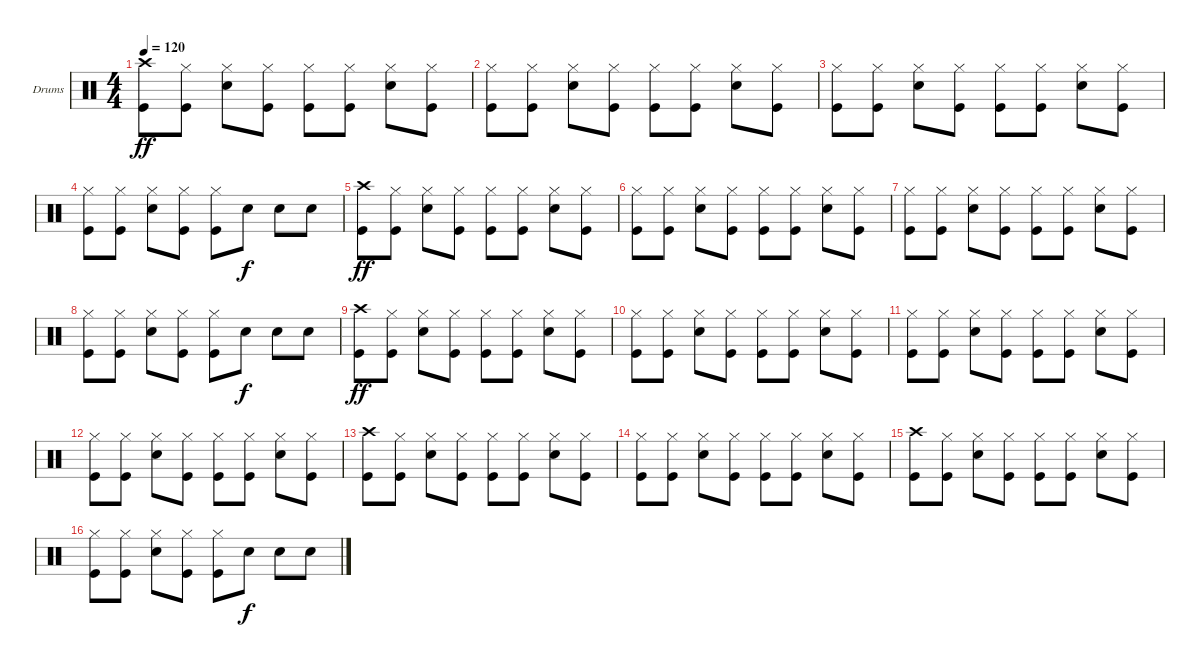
\defaultSystemsLayout 4
\bracketExtendMode groupsimilarinstruments
\firstSystemTrackNameOrientation horizontal
\otherSystemsTrackNameOrientation horizontal
\track ("Drumkit" "Drums") {instrument percussion}
\staff {score}
\articulation defaults
\ts (4 4)
\tempo 120
\clef neutral
\ks c
("Kick (hit)" "Crash high (hit)").8{dy ff} ("Kick (hit)" "Hi-Hat (closed)").8 ("Snare (hit) 2" "Hi-Hat (closed)").8 ("Kick (hit)" "Hi-Hat (closed)").8 ("Kick (hit)" "Hi-Hat (closed)").8 ("Kick (hit)" "Hi-Hat (closed)").8 ("Snare (hit) 2" "Hi-Hat (closed)").8 ("Kick (hit)" "Hi-Hat (closed)").8 |
("Kick (hit)" "Hi-Hat (closed)").8 ("Kick (hit)" "Hi-Hat (closed)").8 ("Snare (hit) 2" "Hi-Hat (closed)").8 ("Kick (hit)" "Hi-Hat (closed)").8 ("Kick (hit)" "Hi-Hat (closed)").8 ("Kick (hit)" "Hi-Hat (closed)").8 ("Snare (hit) 2" "Hi-Hat (closed)").8 ("Kick (hit)" "Hi-Hat (closed)").8 |
("Kick (hit)" "Hi-Hat (closed)").8 ("Kick (hit)" "Hi-Hat (closed)").8 ("Snare (hit) 2" "Hi-Hat (closed)").8 ("Kick (hit)" "Hi-Hat (closed)").8 ("Kick (hit)" "Hi-Hat (closed)").8 ("Kick (hit)" "Hi-Hat (closed)").8 ("Snare (hit) 2" "Hi-Hat (closed)").8 ("Kick (hit)" "Hi-Hat (closed)").8 |
("Kick (hit)" "Hi-Hat (closed)").8 ("Kick (hit)" "Hi-Hat (closed)").8 ("Snare (hit) 2" "Hi-Hat (closed)").8 ("Kick (hit)" "Hi-Hat (closed)").8 ("Kick (hit)" "Hi-Hat (closed)").8 "Snare (hit) 2".8{dy f} "Snare (hit) 2".8 "Snare (hit) 2".8 |
("Kick (hit)" "Crash high (hit)").8{dy ff} ("Kick (hit)" "Hi-Hat (closed)").8 ("Snare (hit) 2" "Hi-Hat (closed)").8 ("Kick (hit)" "Hi-Hat (closed)").8 ("Kick (hit)" "Hi-Hat (closed)").8 ("Kick (hit)" "Hi-Hat (closed)").8 ("Snare (hit) 2" "Hi-Hat (closed)").8 ("Kick (hit)" "Hi-Hat (closed)").8 |
("Kick (hit)" "Hi-Hat (closed)").8 ("Kick (hit)" "Hi-Hat (closed)").8 ("Snare (hit) 2" "Hi-Hat (closed)").8 ("Kick (hit)" "Hi-Hat (closed)").8 ("Kick (hit)" "Hi-Hat (closed)").8 ("Kick (hit)" "Hi-Hat (closed)").8 ("Snare (hit) 2" "Hi-Hat (closed)").8 ("Kick (hit)" "Hi-Hat (closed)").8 |
("Kick (hit)" "Hi-Hat (closed)").8 ("Kick (hit)" "Hi-Hat (closed)").8 ("Snare (hit) 2" "Hi-Hat (closed)").8 ("Kick (hit)" "Hi-Hat (closed)").8 ("Kick (hit)" "Hi-Hat (closed)").8 ("Kick (hit)" "Hi-Hat (closed)").8 ("Snare (hit) 2" "Hi-Hat (closed)").8 ("Kick (hit)" "Hi-Hat (closed)").8 |
("Kick (hit)" "Hi-Hat (closed)").8 ("Kick (hit)" "Hi-Hat (closed)").8 ("Snare (hit) 2" "Hi-Hat (closed)").8 ("Kick (hit)" "Hi-Hat (closed)").8 ("Kick (hit)" "Hi-Hat (closed)").8 "Snare (hit) 2".8{dy f} "Snare (hit) 2".8 "Snare (hit) 2".8 |
("Kick (hit)" "Crash high (hit)").8{dy ff} ("Kick (hit)" "Hi-Hat (closed)").8 ("Snare (hit) 2" "Hi-Hat (closed)").8 ("Kick (hit)" "Hi-Hat (closed)").8 ("Kick (hit)" "Hi-Hat (closed)").8 ("Kick (hit)" "Hi-Hat (closed)").8 ("Snare (hit) 2" "Hi-Hat (closed)").8 ("Kick (hit)" "Hi-Hat (closed)").8 |
("Kick (hit)" "Hi-Hat (closed)").8 ("Kick (hit)" "Hi-Hat (closed)").8 ("Snare (hit) 2" "Hi-Hat (closed)").8 ("Kick (hit)" "Hi-Hat (closed)").8 ("Kick (hit)" "Hi-Hat (closed)").8 ("Kick (hit)" "Hi-Hat (closed)").8 ("Snare (hit) 2" "Hi-Hat (closed)").8 ("Kick (hit)" "Hi-Hat (closed)").8 |
("Kick (hit)" "Hi-Hat (closed)").8 ("Kick (hit)" "Hi-Hat (closed)").8 ("Snare (hit) 2" "Hi-Hat (closed)").8 ("Kick (hit)" "Hi-Hat (closed)").8 ("Kick (hit)" "Hi-Hat (closed)").8 ("Kick (hit)" "Hi-Hat (closed)").8 ("Snare (hit) 2" "Hi-Hat (closed)").8 ("Kick (hit)" "Hi-Hat (closed)").8 |
("Kick (hit)" "Hi-Hat (closed)").8 ("Kick (hit)" "Hi-Hat (closed)").8 ("Snare (hit) 2" "Hi-Hat (closed)").8 ("Kick (hit)" "Hi-Hat (closed)").8 ("Kick (hit)" "Hi-Hat (closed)").8 ("Kick (hit)" "Hi-Hat (closed)").8 ("Snare (hit) 2" "Hi-Hat (closed)").8 ("Kick (hit)" "Hi-Hat (closed)").8 |
("Kick (hit)" "Crash high (hit)").8 ("Kick (hit)" "Hi-Hat (closed)").8 ("Snare (hit) 2" "Hi-Hat (closed)").8 ("Kick (hit)" "Hi-Hat (closed)").8 ("Kick (hit)" "Hi-Hat (closed)").8 ("Kick (hit)" "Hi-Hat (closed)").8 ("Snare (hit) 2" "Hi-Hat (closed)").8 ("Kick (hit)" "Hi-Hat (closed)").8 |
("Kick (hit)" "Hi-Hat (closed)").8 ("Kick (hit)" "Hi-Hat (closed)").8 ("Snare (hit) 2" "Hi-Hat (closed)").8 ("Kick (hit)" "Hi-Hat (closed)").8 ("Kick (hit)" "Hi-Hat (closed)").8 ("Kick (hit)" "Hi-Hat (closed)").8 ("Snare (hit) 2" "Hi-Hat (closed)").8 ("Kick (hit)" "Hi-Hat (closed)").8 |
("Kick (hit)" "Crash high (hit)").8 ("Kick (hit)" "Hi-Hat (closed)").8 ("Snare (hit) 2" "Hi-Hat (closed)").8 ("Kick (hit)" "Hi-Hat (closed)").8 ("Kick (hit)" "Hi-Hat (closed)").8 ("Kick (hit)" "Hi-Hat (closed)").8 ("Snare (hit) 2" "Hi-Hat (closed)").8 ("Kick (hit)" "Hi-Hat (closed)").8 |
("Kick (hit)" "Hi-Hat (closed)").8 ("Kick (hit)" "Hi-Hat (closed)").8 ("Snare (hit) 2" "Hi-Hat (closed)").8 ("Kick (hit)" "Hi-Hat (closed)").8 ("Kick (hit)" "Hi-Hat (closed)").8 "Snare (hit) 2".8{dy f} "Snare (hit) 2".8 "Snare (hit) 2".8
